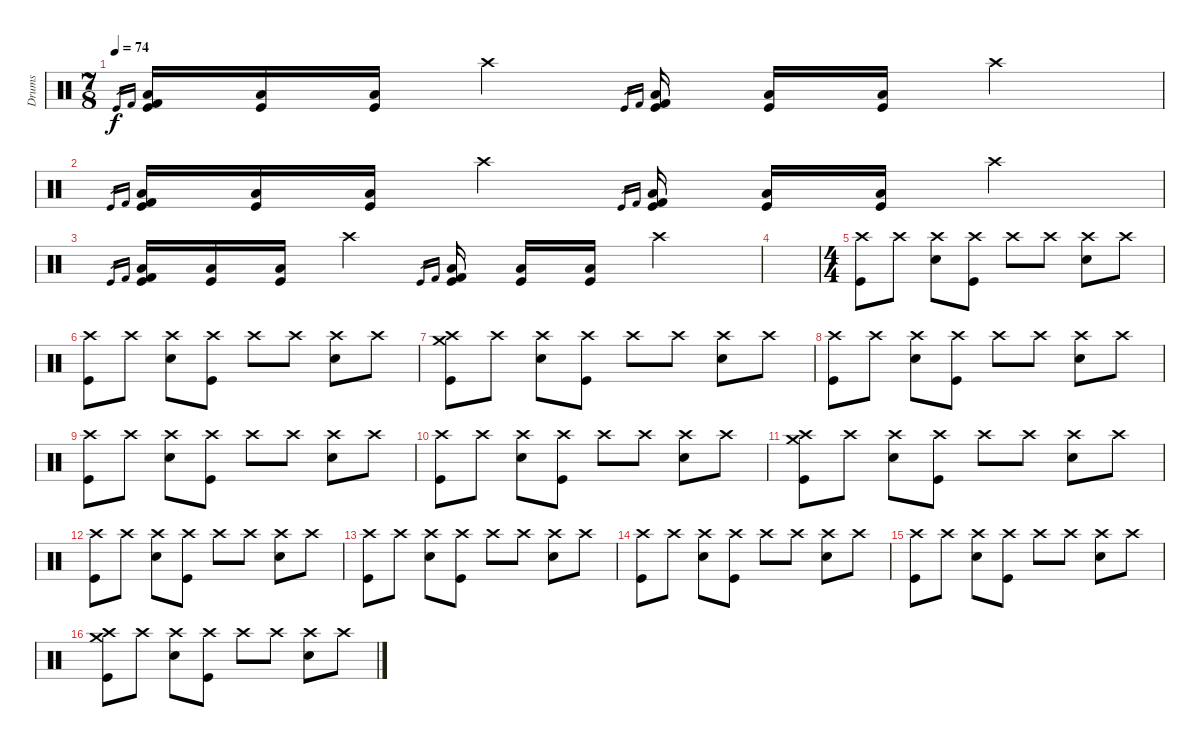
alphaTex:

\track ("Drums" "Drums") {instrument percussion}
\staff {score}
\articulation defaults
\ts (7 8)
\tempo 74
\clef neutral
\ks c "Kick (hit)".16{gr dy f} "Kick (hit) 2".16{gr}
("Low Floor Tom (hit)" "Kick (hit)" "Kick (hit) 2").16 ("Low Floor Tom (hit)" "Kick (hit)").16 ("Low Floor Tom (hit)" "Kick (hit)").16 "Crash high (hit)".4 "Kick (hit)".16{gr} "Kick (hit) 2".16{gr} ("Low Floor Tom (hit)" "Kick (hit)" "Kick (hit) 2").16 ("Low Floor Tom (hit)" "Kick (hit)").16 ("Low Floor Tom (hit)" "Kick (hit)").16 "Crash high (hit)".4 |
"Kick (hit)".16{gr} "Kick (hit) 2".16{gr} ("Low Floor Tom (hit)" "Kick (hit)" "Kick (hit) 2").16 ("Low Floor Tom (hit)" "Kick (hit)").16 ("Low Floor Tom (hit)" "Kick (hit)").16 "Crash high (hit)".4 "Kick (hit)".16{gr} "Kick (hit) 2".16{gr} ("Low Floor Tom (hit)" "Kick (hit)" "Kick (hit) 2").16 ("Low Floor Tom (hit)" "Kick (hit)").16 ("Low Floor Tom (hit)" "Kick (hit)").16 "Crash high (hit)".4 |
"Kick (hit)".16{gr} "Kick (hit) 2".16{gr} ("Low Floor Tom (hit)" "Kick (hit)" "Kick (hit) 2").16 ("Low Floor Tom (hit)" "Kick (hit)").16 ("Low Floor Tom (hit)" "Kick (hit)").16 "Crash high (hit)".4 "Kick (hit)".16{gr} "Kick (hit) 2".16{gr} ("Low Floor Tom (hit)" "Kick (hit)" "Kick (hit) 2").16 ("Low Floor Tom (hit)" "Kick (hit)").16 ("Low Floor Tom (hit)" "Kick (hit)").16 "Crash high (hit)".4 |
|
\ts (4 4)
("Crash high (hit)" "Kick (hit)").8 "Crash high (hit)".8 ("Crash high (hit)" "Snare (hit) 2").8 ("Crash high (hit)" "Kick (hit)").8 "Crash high (hit)".8 "Crash high (hit)".8 ("Crash high (hit)" "Snare (hit) 2").8 "Crash high (hit)".8 |
("Crash high (hit)" "Kick (hit)").8 "Crash high (hit)".8 ("Crash high (hit)" "Snare (hit) 2").8 ("Crash high (hit)" "Kick (hit)").8 "Crash high (hit)".8 "Crash high (hit)".8 ("Crash high (hit)" "Snare (hit) 2").8 "Crash high (hit)".8 |
("Crash high (hit)" "Crash medium (hit)" "Kick (hit)").8 "Crash high (hit)".8 ("Crash high (hit)" "Snare (hit) 2").8 ("Crash high (hit)" "Kick (hit)").8 "Crash high (hit)".8 "Crash high (hit)".8 ("Crash high (hit)" "Snare (hit) 2").8 "Crash high (hit)".8 |
("Crash high (hit)" "Kick (hit)").8 "Crash high (hit)".8 ("Crash high (hit)" "Snare (hit) 2").8 ("Crash high (hit)" "Kick (hit)").8 "Crash high (hit)".8 "Crash high (hit)".8 ("Crash high (hit)" "Snare (hit) 2").8 "Crash high (hit)".8 |
("Crash high (hit)" "Kick (hit)").8 "Crash high (hit)".8 ("Crash high (hit)" "Snare (hit) 2").8 ("Crash high (hit)" "Kick (hit)").8 "Crash high (hit)".8 "Crash high (hit)".8 ("Crash high (hit)" "Snare (hit) 2").8 "Crash high (hit)".8 |
("Crash high (hit)" "Kick (hit)").8 "Crash high (hit)".8 ("Crash high (hit)" "Snare (hit) 2").8 ("Crash high (hit)" "Kick (hit)").8 "Crash high (hit)".8 "Crash high (hit)".8 ("Crash high (hit)" "Snare (hit) 2").8 "Crash high (hit)".8 |
("Crash high (hit)" "Crash medium (hit)" "Kick (hit)").8 "Crash high (hit)".8 ("Crash high (hit)" "Snare (hit) 2").8 ("Crash high (hit)" "Kick (hit)").8 "Crash high (hit)".8 "Crash high (hit)".8 ("Crash high (hit)" "Snare (hit) 2").8 "Crash high (hit)".8 |
("Crash high (hit)" "Kick (hit)").8 "Crash high (hit)".8 ("Crash high (hit)" "Snare (hit) 2").8 ("Crash high (hit)" "Kick (hit)").8 "Crash high (hit)".8 "Crash high (hit)".8 ("Crash high (hit)" "Snare (hit) 2").8 "Crash high (hit)".8 |
("Crash high (hit)" "Kick (hit)").8 "Crash high (hit)".8 ("Crash high (hit)" "Snare (hit) 2").8 ("Crash high (hit)" "Kick (hit)").8 "Crash high (hit)".8 "Crash high (hit)".8 ("Crash high (hit)" "Snare (hit) 2").8 "Crash high (hit)".8 |
("Crash high (hit)" "Kick (hit)").8 "Crash high (hit)".8 ("Crash high (hit)" "Snare (hit) 2").8 ("Crash high (hit)" "Kick (hit)").8 "Crash high (hit)".8 "Crash high (hit)".8 ("Crash high (hit)" "Snare (hit) 2").8 "Crash high (hit)".8 |
("Crash high (hit)" "Kick (hit)").8 "Crash high (hit)".8 ("Crash high (hit)" "Snare (hit) 2").8 ("Crash high (hit)" "Kick (hit)").8 "Crash high (hit)".8 "Crash high (hit)".8 ("Crash high (hit)" "Snare (hit) 2").8 "Crash high (hit)".8 |
("Crash high (hit)" "Crash medium (hit)" "Kick (hit)").8 "Crash high (hit)".8 ("Crash high (hit)" "Snare (hit) 2").8 ("Crash high (hit)" "Kick (hit)").8 "Crash high (hit)".8 "Crash high (hit)".8 ("Crash high (hit)" "Snare (hit) 2").8 "Crash high (hit)".8
